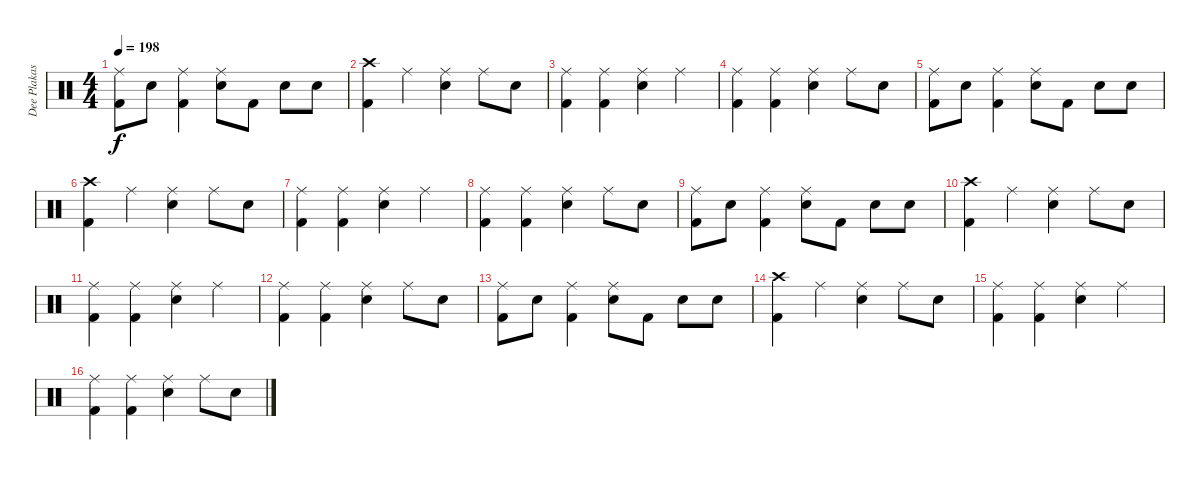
\track ("Dee Plakas" "Dee Plakas") {instrument percussion}
\staff {score}
\articulation defaults
\ts (4 4)
\tempo 198
\clef neutral
\ks c
("Ride (middle)" "Kick (hit) 2").8{dy f} "Snare (hit) 2".8 ("Ride (middle)" "Kick (hit) 2").4 ("Ride (middle)" "Snare (hit) 2").8 "Kick (hit) 2".8 "Snare (hit) 2".8 "Snare (hit) 2".8 |
("Crash high (hit)" "Kick (hit) 2").4 "Ride (middle)".4 ("Ride (middle)" "Snare (hit) 2").4 "Ride (middle)".8 "Snare (hit) 2".8 |
("Ride (middle)" "Kick (hit) 2").4 ("Ride (middle)" "Kick (hit) 2").4 ("Ride (middle)" "Snare (hit) 2").4 "Ride (middle)".4 |
("Ride (middle)" "Kick (hit) 2").4 ("Ride (middle)" "Kick (hit) 2").4 ("Ride (middle)" "Snare (hit) 2").4 "Ride (middle)".8 "Snare (hit) 2".8 |
("Ride (middle)" "Kick (hit) 2").8 "Snare (hit) 2".8 ("Ride (middle)" "Kick (hit) 2").4 ("Ride (middle)" "Snare (hit) 2").8 "Kick (hit) 2".8 "Snare (hit) 2".8 "Snare (hit) 2".8 |
("Crash high (hit)" "Kick (hit) 2").4 "Ride (middle)".4 ("Ride (middle)" "Snare (hit) 2").4 "Ride (middle)".8 "Snare (hit) 2".8 |
("Ride (middle)" "Kick (hit) 2").4 ("Ride (middle)" "Kick (hit) 2").4 ("Ride (middle)" "Snare (hit) 2").4 "Ride (middle)".4 |
("Ride (middle)" "Kick (hit) 2").4 ("Ride (middle)" "Kick (hit) 2").4 ("Ride (middle)" "Snare (hit) 2").4 "Ride (middle)".8 "Snare (hit) 2".8 |
("Ride (middle)" "Kick (hit) 2").8 "Snare (hit) 2".8 ("Ride (middle)" "Kick (hit) 2").4 ("Ride (middle)" "Snare (hit) 2").8 "Kick (hit) 2".8 "Snare (hit) 2".8 "Snare (hit) 2".8 |
("Crash high (hit)" "Kick (hit) 2").4 "Ride (middle)".4 ("Ride (middle)" "Snare (hit) 2").4 "Ride (middle)".8 "Snare (hit) 2".8 |
("Ride (middle)" "Kick (hit) 2").4 ("Ride (middle)" "Kick (hit) 2").4 ("Ride (middle)" "Snare (hit) 2").4 "Ride (middle)".4 |
("Ride (middle)" "Kick (hit) 2").4 ("Ride (middle)" "Kick (hit) 2").4 ("Ride (middle)" "Snare (hit) 2").4 "Ride (middle)".8 "Snare (hit) 2".8 |
("Ride (middle)" "Kick (hit) 2").8 "Snare (hit) 2".8 ("Ride (middle)" "Kick (hit) 2").4 ("Ride (middle)" "Snare (hit) 2").8 "Kick (hit) 2".8 "Snare (hit) 2".8 "Snare (hit) 2".8 |
("Crash high (hit)" "Kick (hit) 2").4 "Ride (middle)".4 ("Ride (middle)" "Snare (hit) 2").4 "Ride (middle)".8 "Snare (hit) 2".8 |
("Ride (middle)" "Kick (hit) 2").4 ("Ride (middle)" "Kick (hit) 2").4 ("Ride (middle)" "Snare (hit) 2").4 "Ride (middle)".4 |
("Ride (middle)" "Kick (hit) 2").4 ("Ride (middle)" "Kick (hit) 2").4 ("Ride (middle)" "Snare (hit) 2").4 "Ride (middle)".8 "Snare (hit) 2".8
